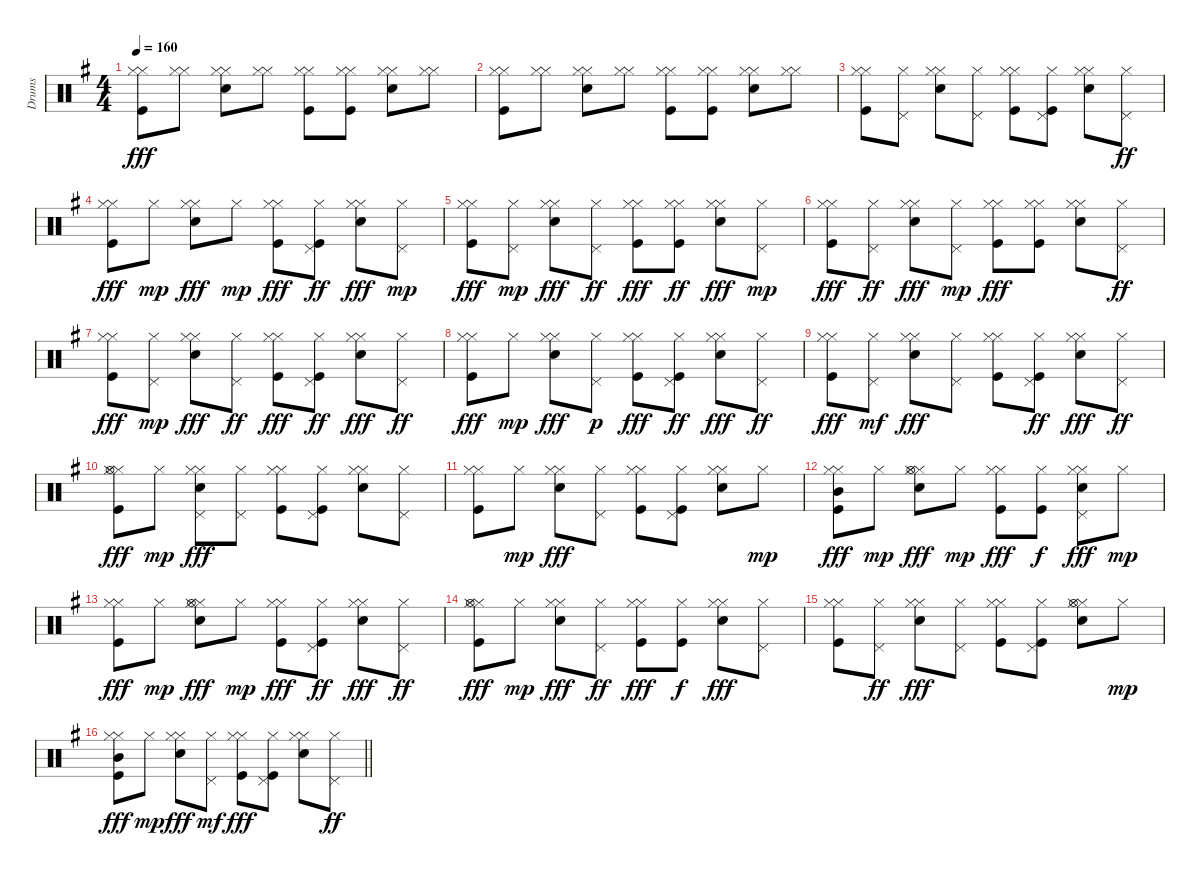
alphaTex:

\track ("Drums" "Drums") {instrument percussion}
\staff {score}
\articulation defaults
\ts (4 4)
\tempo 160
\clef neutral
\ks g
("Hi-Hat (closed)" "Kick (hit)" "Hi-Hat (closed)").8{dy fff} ("Hi-Hat (closed)" "Hi-Hat (closed)").8 ("Snare (hit) 2" "Hi-Hat (closed)" "Hi-Hat (closed)").8 ("Hi-Hat (closed)" "Hi-Hat (closed)").8 ("Hi-Hat (closed)" "Kick (hit)" "Hi-Hat (closed)").8 ("Hi-Hat (closed)" "Kick (hit)" "Hi-Hat (closed)").8 ("Snare (hit) 2" "Hi-Hat (closed)" "Hi-Hat (closed)").8 ("Hi-Hat (closed)" "Hi-Hat (closed)").8 |
("Hi-Hat (closed)" "Kick (hit)" "Hi-Hat (closed)").8 ("Hi-Hat (closed)" "Hi-Hat (closed)").8 ("Snare (hit) 2" "Hi-Hat (closed)" "Hi-Hat (closed)").8 ("Hi-Hat (closed)" "Hi-Hat (closed)").8 ("Hi-Hat (closed)" "Kick (hit)" "Hi-Hat (closed)").8 ("Hi-Hat (closed)" "Kick (hit)" "Hi-Hat (closed)").8 ("Snare (hit) 2" "Hi-Hat (closed)" "Hi-Hat (closed)").8 ("Hi-Hat (closed)" "Hi-Hat (closed)").8 |
("Hi-Hat (closed)" "Kick (hit)" "Hi-Hat (closed)").8 ("Hi-Hat (closed)" "Pedal Hi-Hat (hit)").8 ("Snare (hit) 2" "Hi-Hat (closed)" "Hi-Hat (closed)").8 ("Hi-Hat (closed)" "Pedal Hi-Hat (hit)").8 ("Hi-Hat (closed)" "Kick (hit)" "Hi-Hat (closed)").8 ("Hi-Hat (closed)" "Kick (hit)" "Pedal Hi-Hat (hit)").8 ("Snare (hit) 2" "Hi-Hat (closed)" "Hi-Hat (closed)").8 ("Hi-Hat (closed)" "Pedal Hi-Hat (hit)").8{dy ff} |
("Hi-Hat (closed)" "Kick (hit)" "Hi-Hat (closed)").8{dy fff} "Hi-Hat (closed)".8{dy mp} ("Snare (hit) 2" "Hi-Hat (closed)" "Hi-Hat (closed)").8{dy fff} "Hi-Hat (closed)".8{dy mp} ("Hi-Hat (closed)" "Kick (hit)" "Hi-Hat (closed)").8{dy fff} ("Hi-Hat (closed)" "Kick (hit)" "Pedal Hi-Hat (hit)").8{dy ff} ("Snare (hit) 2" "Hi-Hat (closed)" "Hi-Hat (closed)").8{dy fff} ("Hi-Hat (closed)" "Pedal Hi-Hat (hit)").8{dy mp} |
("Hi-Hat (closed)" "Kick (hit)" "Hi-Hat (closed)").8{dy fff} ("Hi-Hat (closed)" "Pedal Hi-Hat (hit)").8{dy mp} ("Snare (hit) 2" "Hi-Hat (closed)" "Hi-Hat (closed)").8{dy fff} ("Hi-Hat (closed)" "Pedal Hi-Hat (hit)").8{dy ff} ("Hi-Hat (closed)" "Kick (hit)" "Hi-Hat (closed)").8{dy fff} ("Hi-Hat (closed)" "Kick (hit)" "Hi-Hat (closed)").8{dy ff} ("Snare (hit) 2" "Hi-Hat (closed)" "Hi-Hat (closed)").8{dy fff} ("Hi-Hat (closed)" "Pedal Hi-Hat (hit)").8{dy mp} |
("Hi-Hat (closed)" "Kick (hit)" "Hi-Hat (closed)").8{dy fff} ("Hi-Hat (closed)" "Pedal Hi-Hat (hit)").8{dy ff} ("Snare (hit) 2" "Hi-Hat (closed)" "Hi-Hat (closed)").8{dy fff} ("Hi-Hat (closed)" "Pedal Hi-Hat (hit)").8{dy mp} ("Hi-Hat (closed)" "Kick (hit)" "Hi-Hat (closed)").8{dy fff} ("Hi-Hat (closed)" "Kick (hit)" "Hi-Hat (closed)").8 ("Snare (hit) 2" "Hi-Hat (closed)" "Hi-Hat (closed)").8 ("Hi-Hat (closed)" "Pedal Hi-Hat (hit)").8{dy ff} |
("Hi-Hat (closed)" "Kick (hit)" "Hi-Hat (closed)").8{dy fff} ("Hi-Hat (closed)" "Pedal Hi-Hat (hit)").8{dy mp} ("Snare (hit) 2" "Hi-Hat (closed)" "Hi-Hat (closed)").8{dy fff} ("Hi-Hat (closed)" "Pedal Hi-Hat (hit)").8{dy ff} ("Hi-Hat (closed)" "Kick (hit)" "Hi-Hat (closed)").8{dy fff} ("Hi-Hat (closed)" "Kick (hit)" "Pedal Hi-Hat (hit)").8{dy ff} ("Snare (hit) 2" "Hi-Hat (closed)" "Hi-Hat (closed)").8{dy fff} ("Hi-Hat (closed)" "Pedal Hi-Hat (hit)").8{dy ff} |
("Hi-Hat (closed)" "Kick (hit)" "Hi-Hat (closed)").8{dy fff} "Hi-Hat (closed)".8{dy mp} ("Snare (hit) 2" "Hi-Hat (closed)" "Hi-Hat (closed)").8{dy fff} ("Hi-Hat (closed)" "Pedal Hi-Hat (hit)").8{dy p} ("Hi-Hat (closed)" "Kick (hit)" "Hi-Hat (closed)").8{dy fff} ("Hi-Hat (closed)" "Kick (hit)" "Pedal Hi-Hat (hit)").8{dy ff} ("Snare (hit) 2" "Hi-Hat (closed)" "Hi-Hat (closed)").8{dy fff} ("Hi-Hat (closed)" "Pedal Hi-Hat (hit)").8{dy ff} |
("Hi-Hat (closed)" "Kick (hit)" "Hi-Hat (closed)").8{dy fff} ("Hi-Hat (closed)" "Pedal Hi-Hat (hit)").8{dy mf} ("Snare (hit) 2" "Hi-Hat (closed)" "Hi-Hat (closed)").8{dy fff} ("Hi-Hat (closed)" "Pedal Hi-Hat (hit)").8 ("Hi-Hat (closed)" "Kick (hit)" "Hi-Hat (closed)").8 ("Hi-Hat (closed)" "Kick (hit)" "Pedal Hi-Hat (hit)").8{dy ff} ("Snare (hit) 2" "Hi-Hat (closed)" "Hi-Hat (closed)").8{dy fff} ("Hi-Hat (closed)" "Pedal Hi-Hat (hit)").8{dy ff} |
("Hi-Hat (closed)" "Kick (hit)" "Hi-Hat (closed)" "Hi-Hat (open)").8{dy fff} "Hi-Hat (closed)".8{dy mp} ("Snare (hit) 2" "Hi-Hat (closed)" "Hi-Hat (closed)" "Pedal Hi-Hat (hit)").8{dy fff} ("Hi-Hat (closed)" "Pedal Hi-Hat (hit)").8 ("Hi-Hat (closed)" "Kick (hit)" "Hi-Hat (closed)").8 ("Hi-Hat (closed)" "Kick (hit)" "Pedal Hi-Hat (hit)").8 ("Snare (hit) 2" "Hi-Hat (closed)" "Hi-Hat (closed)").8 ("Hi-Hat (closed)" "Pedal Hi-Hat (hit)").8 |
("Hi-Hat (closed)" "Kick (hit)" "Hi-Hat (closed)").8 "Hi-Hat (closed)".8{dy mp} ("Snare (hit) 2" "Hi-Hat (closed)" "Hi-Hat (closed)").8{dy fff} ("Hi-Hat (closed)" "Pedal Hi-Hat (hit)").8 ("Hi-Hat (closed)" "Kick (hit)" "Hi-Hat (closed)").8 ("Hi-Hat (closed)" "Kick (hit)" "Pedal Hi-Hat (hit)").8 ("Snare (hit) 2" "Hi-Hat (closed)" "Hi-Hat (closed)").8 "Hi-Hat (closed)".8{dy mp} |
("Hi-Hat (closed)" "Kick (hit)" "Mid Tom (hit)" "Hi-Hat (closed)").8{dy fff} "Hi-Hat (closed)".8{dy mp} ("Snare (hit) 2" "Hi-Hat (closed)" "Hi-Hat (closed)" "Hi-Hat (open)").8{dy fff} "Hi-Hat (closed)".8{dy mp} ("Hi-Hat (closed)" "Kick (hit)" "Hi-Hat (closed)").8{dy fff} ("Hi-Hat (closed)" "Kick (hit)").8{dy f} ("Snare (hit) 2" "Hi-Hat (closed)" "Pedal Hi-Hat (hit)" "Hi-Hat (closed)").8{dy fff} "Hi-Hat (closed)".8{dy mp} |
("Hi-Hat (closed)" "Kick (hit)" "Hi-Hat (closed)").8{dy fff} "Hi-Hat (closed)".8{dy mp} ("Snare (hit) 2" "Hi-Hat (closed)" "Hi-Hat (closed)" "Hi-Hat (open)").8{dy fff} "Hi-Hat (closed)".8{dy mp} ("Hi-Hat (closed)" "Kick (hit)" "Hi-Hat (closed)").8{dy fff} ("Hi-Hat (closed)" "Kick (hit)" "Pedal Hi-Hat (hit)").8{dy ff} ("Snare (hit) 2" "Hi-Hat (closed)" "Hi-Hat (closed)").8{dy fff} ("Hi-Hat (closed)" "Pedal Hi-Hat (hit)").8{dy ff} |
("Hi-Hat (closed)" "Kick (hit)" "Hi-Hat (open)" "Hi-Hat (closed)").8{dy fff} "Hi-Hat (closed)".8{dy mp} ("Snare (hit) 2" "Hi-Hat (closed)" "Hi-Hat (closed)").8{dy fff} ("Hi-Hat (closed)" "Pedal Hi-Hat (hit)").8{dy ff} ("Hi-Hat (closed)" "Kick (hit)" "Hi-Hat (closed)").8{dy fff} ("Hi-Hat (closed)" "Kick (hit)").8{dy f} ("Snare (hit) 2" "Hi-Hat (closed)" "Hi-Hat (closed)").8{dy fff} ("Hi-Hat (closed)" "Pedal Hi-Hat (hit)").8 |
("Hi-Hat (closed)" "Kick (hit)" "Hi-Hat (closed)").8 ("Hi-Hat (closed)" "Pedal Hi-Hat (hit)").8{dy ff} ("Snare (hit) 2" "Hi-Hat (closed)" "Hi-Hat (closed)").8{dy fff} ("Hi-Hat (closed)" "Pedal Hi-Hat (hit)").8 ("Hi-Hat (closed)" "Kick (hit)" "Hi-Hat (closed)").8 ("Hi-Hat (closed)" "Kick (hit)" "Pedal Hi-Hat (hit)").8 ("Snare (hit) 2" "Hi-Hat (closed)" "Hi-Hat (closed)" "Hi-Hat (open)").8 "Hi-Hat (closed)".8{dy mp} |
\barLineRight lightlight
("Hi-Hat (closed)" "Kick (hit)" "Mid Tom (hit)" "Hi-Hat (closed)").8{dy fff} "Hi-Hat (closed)".8{dy mp} ("Snare (hit) 2" "Hi-Hat (closed)" "Hi-Hat (closed)").8{dy fff} ("Hi-Hat (closed)" "Pedal Hi-Hat (hit)").8{dy mf} ("Hi-Hat (closed)" "Kick (hit)" "Hi-Hat (closed)").8{dy fff} ("Hi-Hat (closed)" "Kick (hit)" "Pedal Hi-Hat (hit)").8 ("Snare (hit) 2" "Hi-Hat (closed)" "Hi-Hat (closed)").8 ("Hi-Hat (closed)" "Pedal Hi-Hat (hit)").8{dy ff}
